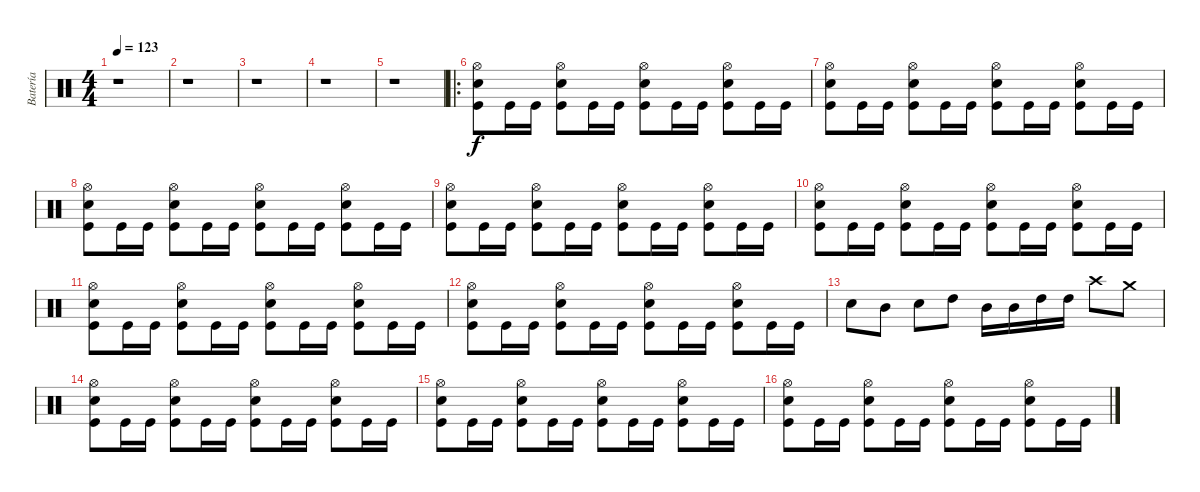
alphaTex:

\track ("Batería" "Batería") {instrument percussion}
\staff {score}
\articulation defaults
\ts (4 4)
\tempo 123
\clef neutral
\ks c
r.1{dy f} |
r.1 |
r.1 |
r.1 |
r.1 |
\ro
("Hi-Hat (open)" "Snare (hit) 2" "Kick (hit)").8 "Kick (hit)".16 "Kick (hit)".16 ("Hi-Hat (open)" "Snare (hit) 2" "Kick (hit)").8 "Kick (hit)".16 "Kick (hit)".16 ("Hi-Hat (open)" "Snare (hit) 2" "Kick (hit)").8 "Kick (hit)".16 "Kick (hit)".16 ("Hi-Hat (open)" "Snare (hit) 2" "Kick (hit)").8 "Kick (hit)".16 "Kick (hit)".16 |
("Hi-Hat (open)" "Snare (hit) 2" "Kick (hit)").8 "Kick (hit)".16 "Kick (hit)".16 ("Hi-Hat (open)" "Snare (hit) 2" "Kick (hit)").8 "Kick (hit)".16 "Kick (hit)".16 ("Hi-Hat (open)" "Snare (hit) 2" "Kick (hit)").8 "Kick (hit)".16 "Kick (hit)".16 ("Hi-Hat (open)" "Snare (hit) 2" "Kick (hit)").8 "Kick (hit)".16 "Kick (hit)".16 |
("Hi-Hat (open)" "Snare (hit) 2" "Kick (hit)").8 "Kick (hit)".16 "Kick (hit)".16 ("Hi-Hat (open)" "Snare (hit) 2" "Kick (hit)").8 "Kick (hit)".16 "Kick (hit)".16 ("Hi-Hat (open)" "Snare (hit) 2" "Kick (hit)").8 "Kick (hit)".16 "Kick (hit)".16 ("Hi-Hat (open)" "Snare (hit) 2" "Kick (hit)").8 "Kick (hit)".16 "Kick (hit)".16 |
("Hi-Hat (open)" "Snare (hit) 2" "Kick (hit)").8 "Kick (hit)".16 "Kick (hit)".16 ("Hi-Hat (open)" "Snare (hit) 2" "Kick (hit)").8 "Kick (hit)".16 "Kick (hit)".16 ("Hi-Hat (open)" "Snare (hit) 2" "Kick (hit)").8 "Kick (hit)".16 "Kick (hit)".16 ("Hi-Hat (open)" "Snare (hit) 2" "Kick (hit)").8 "Kick (hit)".16 "Kick (hit)".16 |
("Hi-Hat (open)" "Snare (hit) 2" "Kick (hit)").8 "Kick (hit)".16 "Kick (hit)".16 ("Hi-Hat (open)" "Snare (hit) 2" "Kick (hit)").8 "Kick (hit)".16 "Kick (hit)".16 ("Hi-Hat (open)" "Snare (hit) 2" "Kick (hit)").8 "Kick (hit)".16 "Kick (hit)".16 ("Hi-Hat (open)" "Snare (hit) 2" "Kick (hit)").8 "Kick (hit)".16 "Kick (hit)".16 |
("Hi-Hat (open)" "Snare (hit) 2" "Kick (hit)").8 "Kick (hit)".16 "Kick (hit)".16 ("Hi-Hat (open)" "Snare (hit) 2" "Kick (hit)").8 "Kick (hit)".16 "Kick (hit)".16 ("Hi-Hat (open)" "Snare (hit) 2" "Kick (hit)").8 "Kick (hit)".16 "Kick (hit)".16 ("Hi-Hat (open)" "Snare (hit) 2" "Kick (hit)").8 "Kick (hit)".16 "Kick (hit)".16 |
("Hi-Hat (open)" "Snare (hit) 2" "Kick (hit)").8 "Kick (hit)".16 "Kick (hit)".16 ("Hi-Hat (open)" "Snare (hit) 2" "Kick (hit)").8 "Kick (hit)".16 "Kick (hit)".16 ("Hi-Hat (open)" "Snare (hit) 2" "Kick (hit)").8 "Kick (hit)".16 "Kick (hit)".16 ("Hi-Hat (open)" "Snare (hit) 2" "Kick (hit)").8 "Kick (hit)".16 "Kick (hit)".16 |
"Snare (hit) 2".8 "Mid Tom (hit)".8 "Snare (hit) 2".8 "High Tom (hit)".8 "Mid Tom (hit)".16 "Mid Tom (hit)".16 "High Tom (hit)".16 "High Tom (hit)".16 "Crash high (hit)".8 "Crash medium (hit)".8 |
("Hi-Hat (open)" "Snare (hit) 2" "Kick (hit)").8 "Kick (hit)".16 "Kick (hit)".16 ("Hi-Hat (open)" "Snare (hit) 2" "Kick (hit)").8 "Kick (hit)".16 "Kick (hit)".16 ("Hi-Hat (open)" "Snare (hit) 2" "Kick (hit)").8 "Kick (hit)".16 "Kick (hit)".16 ("Hi-Hat (open)" "Snare (hit) 2" "Kick (hit)").8 "Kick (hit)".16 "Kick (hit)".16 |
("Hi-Hat (open)" "Snare (hit) 2" "Kick (hit)").8 "Kick (hit)".16 "Kick (hit)".16 ("Hi-Hat (open)" "Snare (hit) 2" "Kick (hit)").8 "Kick (hit)".16 "Kick (hit)".16 ("Hi-Hat (open)" "Snare (hit) 2" "Kick (hit)").8 "Kick (hit)".16 "Kick (hit)".16 ("Hi-Hat (open)" "Snare (hit) 2" "Kick (hit)").8 "Kick (hit)".16 "Kick (hit)".16 |
("Hi-Hat (open)" "Snare (hit) 2" "Kick (hit)").8 "Kick (hit)".16 "Kick (hit)".16 ("Hi-Hat (open)" "Snare (hit) 2" "Kick (hit)").8 "Kick (hit)".16 "Kick (hit)".16 ("Hi-Hat (open)" "Snare (hit) 2" "Kick (hit)").8 "Kick (hit)".16 "Kick (hit)".16 ("Hi-Hat (open)" "Snare (hit) 2" "Kick (hit)").8 "Kick (hit)".16 "Kick (hit)".16
